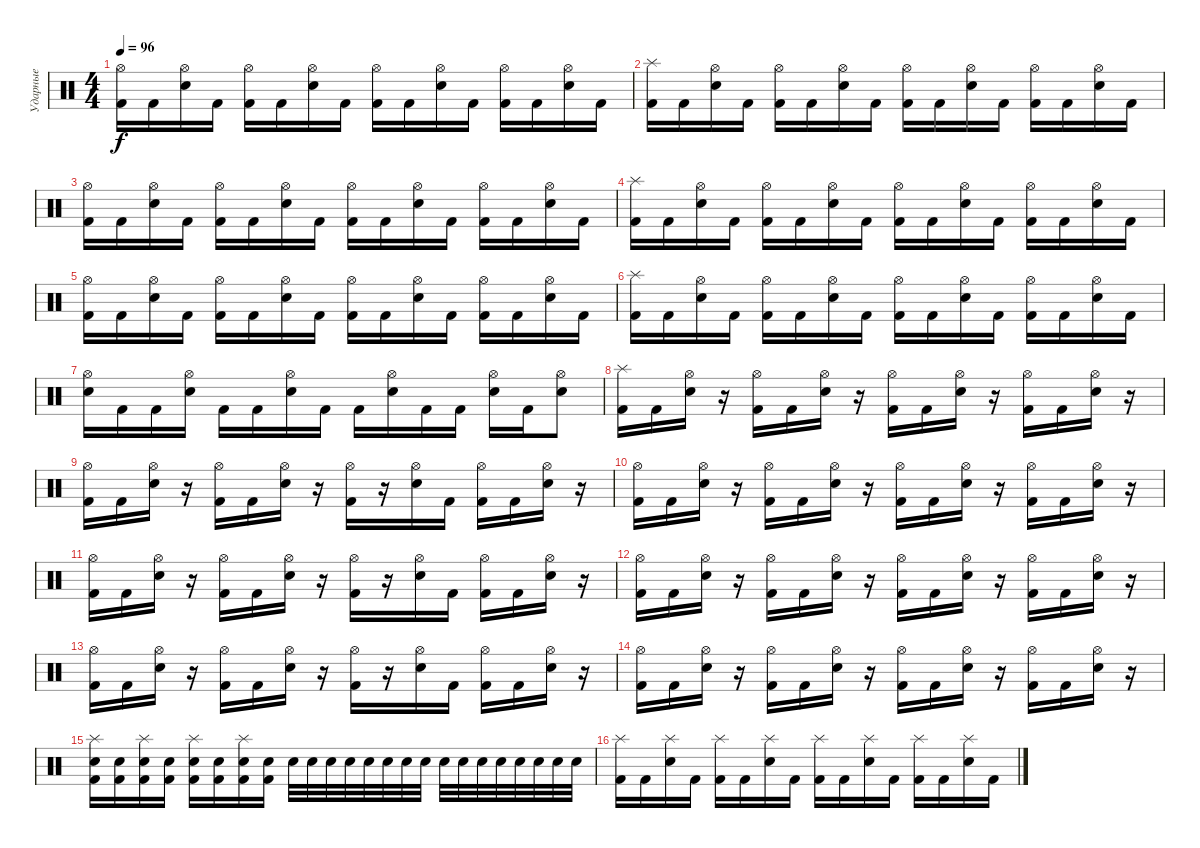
\track ("Ударные" "Ударные") {instrument percussion}
\staff {score}
\articulation defaults
\ts (4 4)
\tempo 96
\clef neutral
\ks c
("Hi-Hat (open)" "Kick (hit) 2").16{dy f} "Kick (hit) 2".16 ("Hi-Hat (open)" "Electric Snare (hit)").16 "Kick (hit) 2".16 ("Hi-Hat (open)" "Kick (hit) 2").16 "Kick (hit) 2".16 ("Hi-Hat (open)" "Electric Snare (hit)").16 "Kick (hit) 2".16 ("Hi-Hat (open)" "Kick (hit) 2").16 "Kick (hit) 2".16 ("Hi-Hat (open)" "Electric Snare (hit)").16 "Kick (hit) 2".16 ("Hi-Hat (open)" "Kick (hit) 2").16 "Kick (hit) 2".16 ("Hi-Hat (open)" "Electric Snare (hit)").16 "Kick (hit) 2".16 |
("Splash (hit)" "Kick (hit) 2").16 "Kick (hit) 2".16 ("Hi-Hat (open)" "Electric Snare (hit)").16 "Kick (hit) 2".16 ("Hi-Hat (open)" "Kick (hit) 2").16 "Kick (hit) 2".16 ("Hi-Hat (open)" "Electric Snare (hit)").16 "Kick (hit) 2".16 ("Hi-Hat (open)" "Kick (hit) 2").16 "Kick (hit) 2".16 ("Hi-Hat (open)" "Electric Snare (hit)").16 "Kick (hit) 2".16 ("Hi-Hat (open)" "Kick (hit) 2").16 "Kick (hit) 2".16 ("Hi-Hat (open)" "Electric Snare (hit)").16 "Kick (hit) 2".16 |
("Hi-Hat (open)" "Kick (hit) 2").16 "Kick (hit) 2".16 ("Hi-Hat (open)" "Electric Snare (hit)").16 "Kick (hit) 2".16 ("Hi-Hat (open)" "Kick (hit) 2").16 "Kick (hit) 2".16 ("Hi-Hat (open)" "Electric Snare (hit)").16 "Kick (hit) 2".16 ("Hi-Hat (open)" "Kick (hit) 2").16 "Kick (hit) 2".16 ("Hi-Hat (open)" "Electric Snare (hit)").16 "Kick (hit) 2".16 ("Hi-Hat (open)" "Kick (hit) 2").16 "Kick (hit) 2".16 ("Hi-Hat (open)" "Electric Snare (hit)").16 "Kick (hit) 2".16 |
("Splash (hit)" "Kick (hit) 2").16 "Kick (hit) 2".16 ("Hi-Hat (open)" "Electric Snare (hit)").16 "Kick (hit) 2".16 ("Hi-Hat (open)" "Kick (hit) 2").16 "Kick (hit) 2".16 ("Hi-Hat (open)" "Electric Snare (hit)").16 "Kick (hit) 2".16 ("Hi-Hat (open)" "Kick (hit) 2").16 "Kick (hit) 2".16 ("Hi-Hat (open)" "Electric Snare (hit)").16 "Kick (hit) 2".16 ("Hi-Hat (open)" "Kick (hit) 2").16 "Kick (hit) 2".16 ("Hi-Hat (open)" "Electric Snare (hit)").16 "Kick (hit) 2".16 |
("Hi-Hat (open)" "Kick (hit) 2").16 "Kick (hit) 2".16 ("Hi-Hat (open)" "Electric Snare (hit)").16 "Kick (hit) 2".16 ("Hi-Hat (open)" "Kick (hit) 2").16 "Kick (hit) 2".16 ("Hi-Hat (open)" "Electric Snare (hit)").16 "Kick (hit) 2".16 ("Hi-Hat (open)" "Kick (hit) 2").16 "Kick (hit) 2".16 ("Hi-Hat (open)" "Electric Snare (hit)").16 "Kick (hit) 2".16 ("Hi-Hat (open)" "Kick (hit) 2").16 "Kick (hit) 2".16 ("Hi-Hat (open)" "Electric Snare (hit)").16 "Kick (hit) 2".16 |
("Splash (hit)" "Kick (hit) 2").16 "Kick (hit) 2".16 ("Hi-Hat (open)" "Electric Snare (hit)").16 "Kick (hit) 2".16 ("Hi-Hat (open)" "Kick (hit) 2").16 "Kick (hit) 2".16 ("Hi-Hat (open)" "Electric Snare (hit)").16 "Kick (hit) 2".16 ("Hi-Hat (open)" "Kick (hit) 2").16 "Kick (hit) 2".16 ("Hi-Hat (open)" "Electric Snare (hit)").16 "Kick (hit) 2".16 ("Hi-Hat (open)" "Kick (hit) 2").16 "Kick (hit) 2".16 ("Hi-Hat (open)" "Electric Snare (hit)").16 "Kick (hit) 2".16 |
("Hi-Hat (open)" "Electric Snare (hit)").16 "Kick (hit) 2".16 "Kick (hit) 2".16 ("Hi-Hat (open)" "Electric Snare (hit)").16 "Kick (hit) 2".16 "Kick (hit) 2".16 ("Hi-Hat (open)" "Electric Snare (hit)").16 "Kick (hit) 2".16 "Kick (hit) 2".16 ("Hi-Hat (open)" "Electric Snare (hit)").16 "Kick (hit) 2".16 "Kick (hit) 2".16 ("Hi-Hat (open)" "Electric Snare (hit)").16 "Kick (hit) 2".16 ("Hi-Hat (open)" "Electric Snare (hit)").8 |
("Splash (hit)" "Kick (hit) 2").16 "Kick (hit) 2".16 ("Hi-Hat (open)" "Electric Snare (hit)").16 r.16 ("Hi-Hat (open)" "Kick (hit) 2").16 "Kick (hit) 2".16 ("Hi-Hat (open)" "Electric Snare (hit)").16 r.16 ("Hi-Hat (open)" "Kick (hit) 2").16 "Kick (hit) 2".16 ("Hi-Hat (open)" "Electric Snare (hit)").16 r.16 ("Hi-Hat (open)" "Kick (hit) 2").16 "Kick (hit) 2".16 ("Hi-Hat (open)" "Electric Snare (hit)").16 r.16 |
("Hi-Hat (open)" "Kick (hit) 2").16 "Kick (hit) 2".16 ("Hi-Hat (open)" "Electric Snare (hit)").16 r.16 ("Hi-Hat (open)" "Kick (hit) 2").16 "Kick (hit) 2".16 ("Hi-Hat (open)" "Electric Snare (hit)").16 r.16 ("Hi-Hat (open)" "Kick (hit) 2").16 r.16 ("Hi-Hat (open)" "Electric Snare (hit)").16 "Kick (hit) 2".16 ("Hi-Hat (open)" "Kick (hit) 2").16 "Kick (hit) 2".16 ("Hi-Hat (open)" "Electric Snare (hit)").16 r.16 |
("Hi-Hat (open)" "Kick (hit) 2").16 "Kick (hit) 2".16 ("Hi-Hat (open)" "Electric Snare (hit)").16 r.16 ("Hi-Hat (open)" "Kick (hit) 2").16 "Kick (hit) 2".16 ("Hi-Hat (open)" "Electric Snare (hit)").16 r.16 ("Hi-Hat (open)" "Kick (hit) 2").16 "Kick (hit) 2".16 ("Hi-Hat (open)" "Electric Snare (hit)").16 r.16 ("Hi-Hat (open)" "Kick (hit) 2").16 "Kick (hit) 2".16 ("Hi-Hat (open)" "Electric Snare (hit)").16 r.16 |
("Hi-Hat (open)" "Kick (hit) 2").16 "Kick (hit) 2".16 ("Hi-Hat (open)" "Electric Snare (hit)").16 r.16 ("Hi-Hat (open)" "Kick (hit) 2").16 "Kick (hit) 2".16 ("Hi-Hat (open)" "Electric Snare (hit)").16 r.16 ("Hi-Hat (open)" "Kick (hit) 2").16 r.16 ("Hi-Hat (open)" "Electric Snare (hit)").16 "Kick (hit) 2".16 ("Hi-Hat (open)" "Kick (hit) 2").16 "Kick (hit) 2".16 ("Hi-Hat (open)" "Electric Snare (hit)").16 r.16 |
("Hi-Hat (open)" "Kick (hit) 2").16 "Kick (hit) 2".16 ("Hi-Hat (open)" "Electric Snare (hit)").16 r.16 ("Hi-Hat (open)" "Kick (hit) 2").16 "Kick (hit) 2".16 ("Hi-Hat (open)" "Electric Snare (hit)").16 r.16 ("Hi-Hat (open)" "Kick (hit) 2").16 "Kick (hit) 2".16 ("Hi-Hat (open)" "Electric Snare (hit)").16 r.16 ("Hi-Hat (open)" "Kick (hit) 2").16 "Kick (hit) 2".16 ("Hi-Hat (open)" "Electric Snare (hit)").16 r.16 |
("Hi-Hat (open)" "Kick (hit) 2").16 "Kick (hit) 2".16 ("Hi-Hat (open)" "Electric Snare (hit)").16 r.16 ("Hi-Hat (open)" "Kick (hit) 2").16 "Kick (hit) 2".16 ("Hi-Hat (open)" "Electric Snare (hit)").16 r.16 ("Hi-Hat (open)" "Kick (hit) 2").16 r.16 ("Hi-Hat (open)" "Electric Snare (hit)").16 "Kick (hit) 2".16 ("Hi-Hat (open)" "Kick (hit) 2").16 "Kick (hit) 2".16 ("Hi-Hat (open)" "Electric Snare (hit)").16 r.16 |
("Hi-Hat (open)" "Kick (hit) 2").16 "Kick (hit) 2".16 ("Hi-Hat (open)" "Electric Snare (hit)").16 r.16 ("Hi-Hat (open)" "Kick (hit) 2").16 "Kick (hit) 2".16 ("Hi-Hat (open)" "Electric Snare (hit)").16 r.16 ("Hi-Hat (open)" "Kick (hit) 2").16 "Kick (hit) 2".16 ("Hi-Hat (open)" "Electric Snare (hit)").16 r.16 ("Hi-Hat (open)" "Kick (hit) 2").16 "Kick (hit) 2".16 ("Hi-Hat (open)" "Electric Snare (hit)").16 r.16 |
("Splash (hit)" "Electric Snare (hit)" "Kick (hit) 2").16 ("Electric Snare (hit)" "Kick (hit) 2").16 ("Splash (hit)" "Electric Snare (hit)" "Kick (hit) 2").16 ("Electric Snare (hit)" "Kick (hit) 2").16 ("Splash (hit)" "Electric Snare (hit)" "Kick (hit) 2").16 ("Electric Snare (hit)" "Kick (hit) 2").16 ("Splash (hit)" "Electric Snare (hit)" "Kick (hit) 2").16 ("Electric Snare (hit)" "Kick (hit) 2").16 "Electric Snare (hit)".32 "Electric Snare (hit)".32 "Electric Snare (hit)".32 "Electric Snare (hit)".32 "Electric Snare (hit)".32 "Electric Snare (hit)".32 "Electric Snare (hit)".32 "Electric Snare (hit)".32 "Electric Snare (hit)".32 "Electric Snare (hit)".32 "Electric Snare (hit)".32 "Electric Snare (hit)".32 "Electric Snare (hit)".32 "Electric Snare (hit)".32 "Electric Snare (hit)".32 "Electric Snare (hit)".32 |
("Splash (hit)" "Kick (hit) 2").16 "Kick (hit) 2".16 ("Splash (hit)" "Electric Snare (hit)").16 "Kick (hit) 2".16 ("Splash (hit)" "Kick (hit) 2").16 "Kick (hit) 2".16 ("Splash (hit)" "Electric Snare (hit)").16 "Kick (hit) 2".16 ("Splash (hit)" "Kick (hit) 2").16 "Kick (hit) 2".16 ("Splash (hit)" "Electric Snare (hit)").16 "Kick (hit) 2".16 ("Splash (hit)" "Kick (hit) 2").16 "Kick (hit) 2".16 ("Splash (hit)" "Electric Snare (hit)").16 "Kick (hit) 2".16
